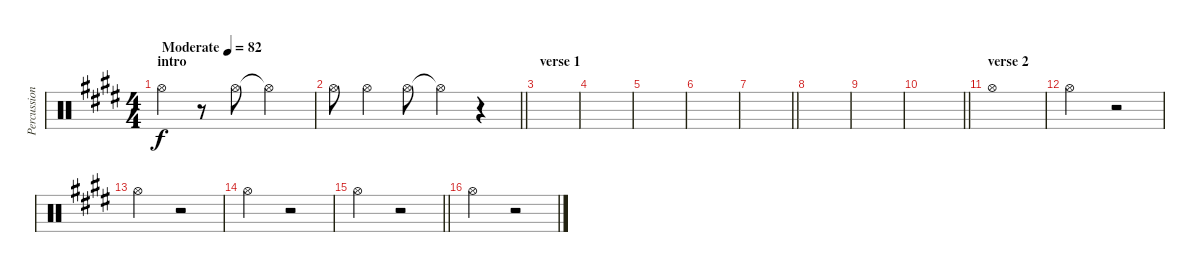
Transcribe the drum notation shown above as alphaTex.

\track ("Percussion" "Percussion") {instrument percussion}
\staff {score}
\articulation defaults
\ts (4 4)
\section ("" "intro")
\tempo (82 "Moderate")
\clef neutral
\ks e "Hi-Hat (open)".4{dy f}
r.8 "Hi-Hat (open)".8 "Hi-Hat (open)"{t}.2 |
\barLineRight lightlight "Hi-Hat (open)".8 "Hi-Hat (open)".4 "Hi-Hat (open)".8 "Hi-Hat (open)"{t}.4
r.4 |
\section ("" "verse 1")
|
|
|
|
\barLineRight lightlight
|
|
|
\barLineRight lightlight
|
\section ("" "verse 2")
"Hi-Hat (open)".1 |
"Hi-Hat (open)".2 r.2 |
"Hi-Hat (open)".2 r.2 |
"Hi-Hat (open)".2 r.2 |
\barLineRight lightlight "Hi-Hat (open)".2
r.2 |
"Hi-Hat (open)".2 r.2
